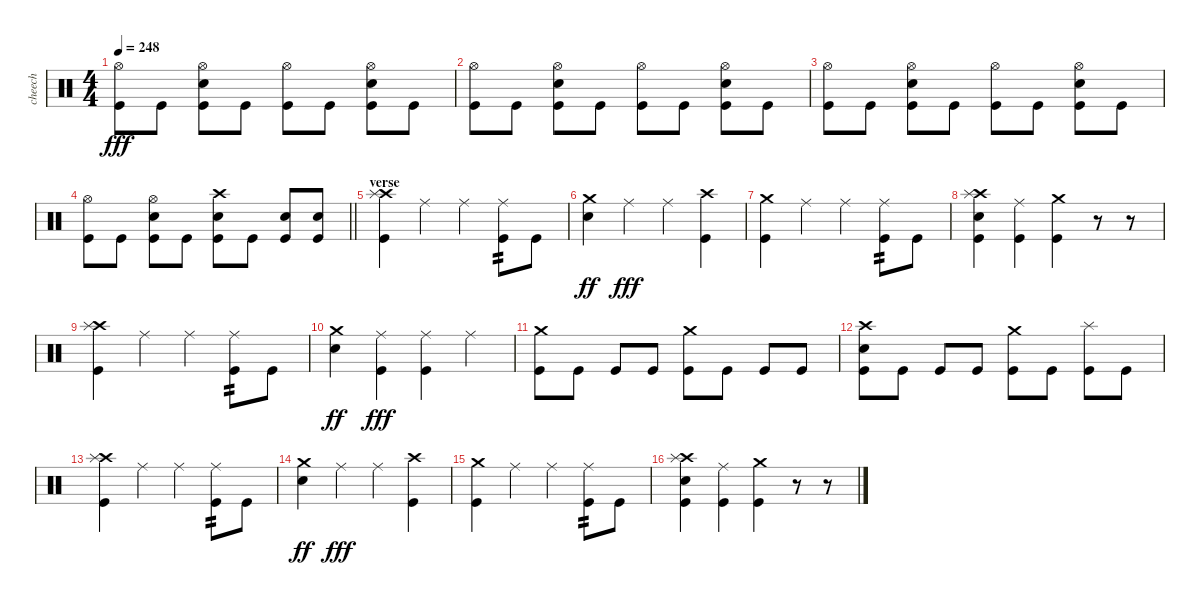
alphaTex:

\track ("cheech" "cheech") {instrument percussion}
\staff {score}
\articulation defaults
\ts (4 4)
\tempo 248
\clef neutral
\ks c
("Hi-Hat (open)" "Kick (hit)").8{dy fff} "Kick (hit)".8 ("Hi-Hat (open)" "Electric Snare (hit)" "Kick (hit)").8 "Kick (hit)".8 ("Hi-Hat (open)" "Kick (hit)").8 "Kick (hit)".8 ("Hi-Hat (open)" "Electric Snare (hit)" "Kick (hit)").8 "Kick (hit)".8 |
("Hi-Hat (open)" "Kick (hit)").8 "Kick (hit)".8 ("Hi-Hat (open)" "Electric Snare (hit)" "Kick (hit)").8 "Kick (hit)".8 ("Hi-Hat (open)" "Kick (hit)").8 "Kick (hit)".8 ("Hi-Hat (open)" "Electric Snare (hit)" "Kick (hit)").8 "Kick (hit)".8 |
("Hi-Hat (open)" "Kick (hit)").8 "Kick (hit)".8 ("Hi-Hat (open)" "Electric Snare (hit)" "Kick (hit)").8 "Kick (hit)".8 ("Hi-Hat (open)" "Kick (hit)").8 "Kick (hit)".8 ("Hi-Hat (open)" "Electric Snare (hit)" "Kick (hit)").8 "Kick (hit)".8 |
\barLineRight lightlight
("Hi-Hat (open)" "Kick (hit)").8 "Kick (hit)".8 ("Hi-Hat (open)" "Electric Snare (hit)" "Kick (hit)").8 "Kick (hit)".8 ("Crash high (hit)" "Electric Snare (hit)" "Kick (hit)").8 "Kick (hit)".8 ("Electric Snare (hit)" "Kick (hit)").8 ("Electric Snare (hit)" "Kick (hit)").8 |
\section ("" "verse")
("Crash high (hit)" "Splash (hit)" "Kick (hit)").4 "Ride (middle)".4 "Ride (middle)".4 ("Ride (middle)" "Kick (hit)").8{tp 2} "Kick (hit)".8 |
("Crash medium (hit)" "Electric Snare (hit)").4{dy ff} "Ride (middle)".4{dy fff} "Ride (middle)".4 ("Crash high (hit)" "Kick (hit)").4 |
("Crash medium (hit)" "Kick (hit)").4 "Ride (middle)".4 "Ride (middle)".4 ("Ride (middle)" "Kick (hit)").8{tp 2} "Kick (hit)".8 |
("Crash high (hit)" "Splash (hit)" "Electric Snare (hit)" "Kick (hit)").4 ("Ride (middle)" "Kick (hit)").4 ("Crash medium (hit)" "Kick (hit)").4 r.8 r.8 |
("Crash high (hit)" "Splash (hit)" "Kick (hit)").4 "Ride (middle)".4 "Ride (middle)".4 ("Ride (middle)" "Kick (hit)").8{tp 2} "Kick (hit)".8 |
("Crash medium (hit)" "Electric Snare (hit)").4{dy ff} ("Ride (middle)" "Kick (hit)").4{dy fff} ("Ride (middle)" "Kick (hit)").4 "Ride (middle)".4 |
("Crash medium (hit)" "Kick (hit)").8 "Kick (hit)".8 "Kick (hit)".8 "Kick (hit)".8 ("Crash medium (hit)" "Kick (hit)").8 "Kick (hit)".8 "Kick (hit)".8 "Kick (hit)".8 |
("Crash high (hit)" "Electric Snare (hit)" "Kick (hit)").8 "Kick (hit)".8 "Kick (hit)".8 "Kick (hit)".8 ("Crash medium (hit)" "Kick (hit)").8 "Kick (hit)".8 ("Splash (hit)" "Kick (hit)").8 "Kick (hit)".8 |
("Crash high (hit)" "Splash (hit)" "Kick (hit)").4 "Ride (middle)".4 "Ride (middle)".4 ("Ride (middle)" "Kick (hit)").8{tp 2} "Kick (hit)".8 |
("Crash medium (hit)" "Electric Snare (hit)").4{dy ff} "Ride (middle)".4{dy fff} "Ride (middle)".4 ("Crash high (hit)" "Kick (hit)").4 |
("Crash medium (hit)" "Kick (hit)").4 "Ride (middle)".4 "Ride (middle)".4 ("Ride (middle)" "Kick (hit)").8{tp 2} "Kick (hit)".8 |
("Crash high (hit)" "Splash (hit)" "Electric Snare (hit)" "Kick (hit)").4 ("Ride (middle)" "Kick (hit)").4 ("Crash medium (hit)" "Kick (hit)").4 r.8 r.8
